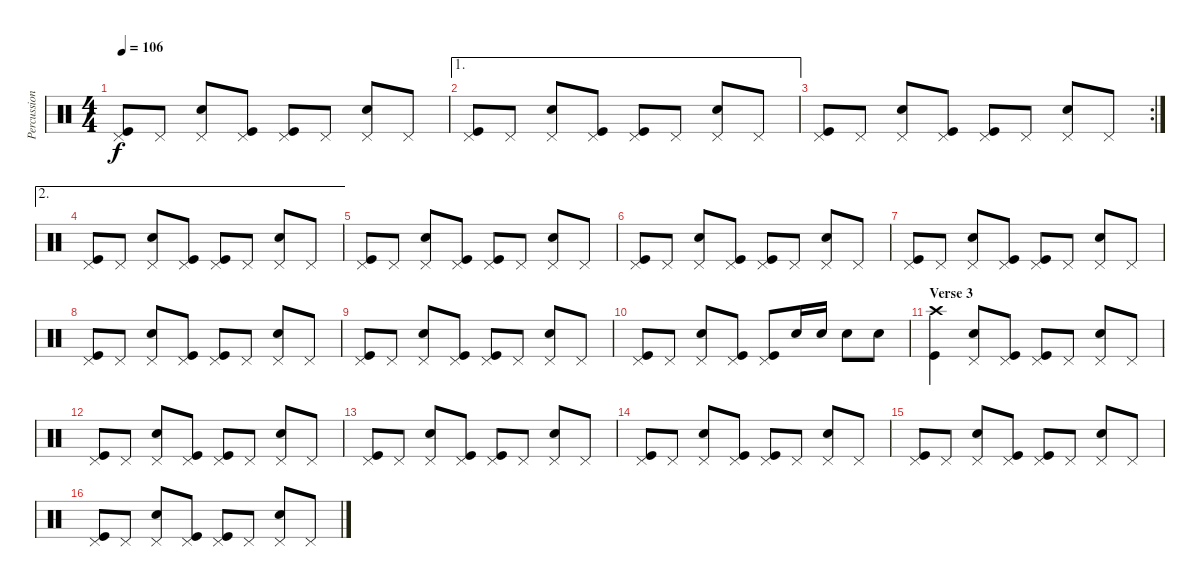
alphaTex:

\track ("Percussion" "Percussion") {instrument percussion}
\staff {score}
\articulation defaults
\ts (4 4)
\tempo 106
\clef neutral
\ks c
("Pedal Hi-Hat (hit)" "Kick (hit)").8{dy f} "Pedal Hi-Hat (hit)".8 ("Pedal Hi-Hat (hit)" "Snare (hit) 2").8 ("Pedal Hi-Hat (hit)" "Kick (hit)").8 ("Pedal Hi-Hat (hit)" "Kick (hit)").8 "Pedal Hi-Hat (hit)".8 ("Pedal Hi-Hat (hit)" "Snare (hit) 2").8 "Pedal Hi-Hat (hit)".8 |
\ae 1
("Pedal Hi-Hat (hit)" "Kick (hit)").8 "Pedal Hi-Hat (hit)".8 ("Pedal Hi-Hat (hit)" "Snare (hit) 2").8 ("Pedal Hi-Hat (hit)" "Kick (hit)").8 ("Pedal Hi-Hat (hit)" "Kick (hit)").8 "Pedal Hi-Hat (hit)".8 ("Pedal Hi-Hat (hit)" "Snare (hit) 2").8 "Pedal Hi-Hat (hit)".8 |
\rc 2
("Pedal Hi-Hat (hit)" "Kick (hit)").8 "Pedal Hi-Hat (hit)".8 ("Pedal Hi-Hat (hit)" "Snare (hit) 2").8 ("Pedal Hi-Hat (hit)" "Kick (hit)").8 ("Pedal Hi-Hat (hit)" "Kick (hit)").8 "Pedal Hi-Hat (hit)".8 ("Pedal Hi-Hat (hit)" "Snare (hit) 2").8 "Pedal Hi-Hat (hit)".8 |
\ae 2
("Pedal Hi-Hat (hit)" "Kick (hit)").8 "Pedal Hi-Hat (hit)".8 ("Pedal Hi-Hat (hit)" "Snare (hit) 2").8 ("Pedal Hi-Hat (hit)" "Kick (hit)").8 ("Pedal Hi-Hat (hit)" "Kick (hit)").8 "Pedal Hi-Hat (hit)".8 ("Pedal Hi-Hat (hit)" "Snare (hit) 2").8 "Pedal Hi-Hat (hit)".8 |
("Pedal Hi-Hat (hit)" "Kick (hit)").8 "Pedal Hi-Hat (hit)".8 ("Pedal Hi-Hat (hit)" "Snare (hit) 2").8 ("Pedal Hi-Hat (hit)" "Kick (hit)").8 ("Pedal Hi-Hat (hit)" "Kick (hit)").8 "Pedal Hi-Hat (hit)".8 ("Pedal Hi-Hat (hit)" "Snare (hit) 2").8 "Pedal Hi-Hat (hit)".8 |
("Pedal Hi-Hat (hit)" "Kick (hit)").8 "Pedal Hi-Hat (hit)".8 ("Pedal Hi-Hat (hit)" "Snare (hit) 2").8 ("Pedal Hi-Hat (hit)" "Kick (hit)").8 ("Pedal Hi-Hat (hit)" "Kick (hit)").8 "Pedal Hi-Hat (hit)".8 ("Pedal Hi-Hat (hit)" "Snare (hit) 2").8 "Pedal Hi-Hat (hit)".8 |
("Pedal Hi-Hat (hit)" "Kick (hit)").8 "Pedal Hi-Hat (hit)".8 ("Pedal Hi-Hat (hit)" "Snare (hit) 2").8 ("Pedal Hi-Hat (hit)" "Kick (hit)").8 ("Pedal Hi-Hat (hit)" "Kick (hit)").8 "Pedal Hi-Hat (hit)".8 ("Pedal Hi-Hat (hit)" "Snare (hit) 2").8 "Pedal Hi-Hat (hit)".8 |
("Pedal Hi-Hat (hit)" "Kick (hit)").8 "Pedal Hi-Hat (hit)".8 ("Pedal Hi-Hat (hit)" "Snare (hit) 2").8 ("Pedal Hi-Hat (hit)" "Kick (hit)").8 ("Pedal Hi-Hat (hit)" "Kick (hit)").8 "Pedal Hi-Hat (hit)".8 ("Pedal Hi-Hat (hit)" "Snare (hit) 2").8 "Pedal Hi-Hat (hit)".8 |
("Pedal Hi-Hat (hit)" "Kick (hit)").8 "Pedal Hi-Hat (hit)".8 ("Pedal Hi-Hat (hit)" "Snare (hit) 2").8 ("Pedal Hi-Hat (hit)" "Kick (hit)").8 ("Pedal Hi-Hat (hit)" "Kick (hit)").8 "Pedal Hi-Hat (hit)".8 ("Pedal Hi-Hat (hit)" "Snare (hit) 2").8 "Pedal Hi-Hat (hit)".8 |
("Pedal Hi-Hat (hit)" "Kick (hit)").8 "Pedal Hi-Hat (hit)".8 ("Pedal Hi-Hat (hit)" "Snare (hit) 2").8 ("Pedal Hi-Hat (hit)" "Kick (hit)").8 ("Pedal Hi-Hat (hit)" "Kick (hit)").8 "Snare (hit) 2".16 "Snare (hit) 2".16 "Snare (hit) 2".8 "Snare (hit) 2".8 |
\section ("" "Verse 3")
("Crash high (hit)" "Kick (hit)").4 ("Pedal Hi-Hat (hit)" "Snare (hit) 2").8 ("Pedal Hi-Hat (hit)" "Kick (hit)").8 ("Pedal Hi-Hat (hit)" "Kick (hit)").8 "Pedal Hi-Hat (hit)".8 ("Pedal Hi-Hat (hit)" "Snare (hit) 2").8 "Pedal Hi-Hat (hit)".8 |
("Pedal Hi-Hat (hit)" "Kick (hit)").8 "Pedal Hi-Hat (hit)".8 ("Pedal Hi-Hat (hit)" "Snare (hit) 2").8 ("Pedal Hi-Hat (hit)" "Kick (hit)").8 ("Pedal Hi-Hat (hit)" "Kick (hit)").8 "Pedal Hi-Hat (hit)".8 ("Pedal Hi-Hat (hit)" "Snare (hit) 2").8 "Pedal Hi-Hat (hit)".8 |
("Pedal Hi-Hat (hit)" "Kick (hit)").8 "Pedal Hi-Hat (hit)".8 ("Pedal Hi-Hat (hit)" "Snare (hit) 2").8 ("Pedal Hi-Hat (hit)" "Kick (hit)").8 ("Pedal Hi-Hat (hit)" "Kick (hit)").8 "Pedal Hi-Hat (hit)".8 ("Pedal Hi-Hat (hit)" "Snare (hit) 2").8 "Pedal Hi-Hat (hit)".8 |
("Pedal Hi-Hat (hit)" "Kick (hit)").8 "Pedal Hi-Hat (hit)".8 ("Pedal Hi-Hat (hit)" "Snare (hit) 2").8 ("Pedal Hi-Hat (hit)" "Kick (hit)").8 ("Pedal Hi-Hat (hit)" "Kick (hit)").8 "Pedal Hi-Hat (hit)".8 ("Pedal Hi-Hat (hit)" "Snare (hit) 2").8 "Pedal Hi-Hat (hit)".8 |
("Pedal Hi-Hat (hit)" "Kick (hit)").8 "Pedal Hi-Hat (hit)".8 ("Pedal Hi-Hat (hit)" "Snare (hit) 2").8 ("Pedal Hi-Hat (hit)" "Kick (hit)").8 ("Pedal Hi-Hat (hit)" "Kick (hit)").8 "Pedal Hi-Hat (hit)".8 ("Pedal Hi-Hat (hit)" "Snare (hit) 2").8 "Pedal Hi-Hat (hit)".8 |
("Pedal Hi-Hat (hit)" "Kick (hit)").8 "Pedal Hi-Hat (hit)".8 ("Pedal Hi-Hat (hit)" "Snare (hit) 2").8 ("Pedal Hi-Hat (hit)" "Kick (hit)").8 ("Pedal Hi-Hat (hit)" "Kick (hit)").8 "Pedal Hi-Hat (hit)".8 ("Pedal Hi-Hat (hit)" "Snare (hit) 2").8 "Pedal Hi-Hat (hit)".8
